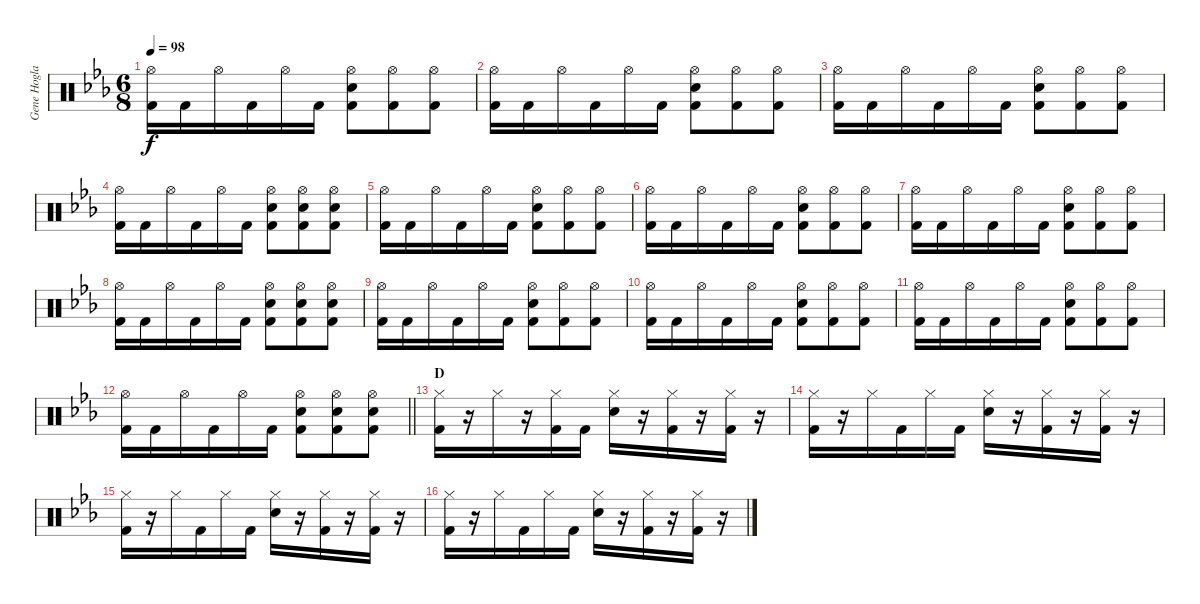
\track ("Gene Hogland" "Gene Hogla") {instrument percussion}
\staff {score}
\articulation defaults
\ts (6 8)
\tempo 98
\clef neutral
\ks eb
("Hi-Hat (open)" "Kick (hit) 2").16{dy f} "Kick (hit) 2".16 "Hi-Hat (open)".16 "Kick (hit) 2".16 "Hi-Hat (open)".16 "Kick (hit) 2".16 ("Hi-Hat (open)" "Electric Snare (hit)" "Kick (hit) 2").8 ("Hi-Hat (open)" "Kick (hit) 2").8 ("Hi-Hat (open)" "Kick (hit) 2").8 |
("Hi-Hat (open)" "Kick (hit) 2").16 "Kick (hit) 2".16 "Hi-Hat (open)".16 "Kick (hit) 2".16 "Hi-Hat (open)".16 "Kick (hit) 2".16 ("Hi-Hat (open)" "Electric Snare (hit)" "Kick (hit) 2").8 ("Hi-Hat (open)" "Kick (hit) 2").8 ("Hi-Hat (open)" "Kick (hit) 2").8 |
("Hi-Hat (open)" "Kick (hit) 2").16 "Kick (hit) 2".16 "Hi-Hat (open)".16 "Kick (hit) 2".16 "Hi-Hat (open)".16 "Kick (hit) 2".16 ("Hi-Hat (open)" "Electric Snare (hit)" "Kick (hit) 2").8 ("Hi-Hat (open)" "Kick (hit) 2").8 ("Hi-Hat (open)" "Kick (hit) 2").8 |
("Hi-Hat (open)" "Kick (hit) 2").16 "Kick (hit) 2".16 "Hi-Hat (open)".16 "Kick (hit) 2".16 "Hi-Hat (open)".16 "Kick (hit) 2".16 ("Hi-Hat (open)" "Electric Snare (hit)" "Kick (hit) 2").8 ("Hi-Hat (open)" "Electric Snare (hit)" "Kick (hit) 2").8 ("Hi-Hat (open)" "Electric Snare (hit)" "Kick (hit) 2").8 |
("Hi-Hat (open)" "Kick (hit) 2").16 "Kick (hit) 2".16 "Hi-Hat (open)".16 "Kick (hit) 2".16 "Hi-Hat (open)".16 "Kick (hit) 2".16 ("Hi-Hat (open)" "Electric Snare (hit)" "Kick (hit) 2").8 ("Hi-Hat (open)" "Kick (hit) 2").8 ("Hi-Hat (open)" "Kick (hit) 2").8 |
("Hi-Hat (open)" "Kick (hit) 2").16 "Kick (hit) 2".16 "Hi-Hat (open)".16 "Kick (hit) 2".16 "Hi-Hat (open)".16 "Kick (hit) 2".16 ("Hi-Hat (open)" "Electric Snare (hit)" "Kick (hit) 2").8 ("Hi-Hat (open)" "Kick (hit) 2").8 ("Hi-Hat (open)" "Kick (hit) 2").8 |
("Hi-Hat (open)" "Kick (hit) 2").16 "Kick (hit) 2".16 "Hi-Hat (open)".16 "Kick (hit) 2".16 "Hi-Hat (open)".16 "Kick (hit) 2".16 ("Hi-Hat (open)" "Electric Snare (hit)" "Kick (hit) 2").8 ("Hi-Hat (open)" "Kick (hit) 2").8 ("Hi-Hat (open)" "Kick (hit) 2").8 |
("Hi-Hat (open)" "Kick (hit) 2").16 "Kick (hit) 2".16 "Hi-Hat (open)".16 "Kick (hit) 2".16 "Hi-Hat (open)".16 "Kick (hit) 2".16 ("Hi-Hat (open)" "Electric Snare (hit)" "Kick (hit) 2").8 ("Hi-Hat (open)" "Electric Snare (hit)" "Kick (hit) 2").8 ("Hi-Hat (open)" "Electric Snare (hit)" "Kick (hit) 2").8 |
("Hi-Hat (open)" "Kick (hit) 2").16 "Kick (hit) 2".16 "Hi-Hat (open)".16 "Kick (hit) 2".16 "Hi-Hat (open)".16 "Kick (hit) 2".16 ("Hi-Hat (open)" "Electric Snare (hit)" "Kick (hit) 2").8 ("Hi-Hat (open)" "Kick (hit) 2").8 ("Hi-Hat (open)" "Kick (hit) 2").8 |
("Hi-Hat (open)" "Kick (hit) 2").16 "Kick (hit) 2".16 "Hi-Hat (open)".16 "Kick (hit) 2".16 "Hi-Hat (open)".16 "Kick (hit) 2".16 ("Hi-Hat (open)" "Electric Snare (hit)" "Kick (hit) 2").8 ("Hi-Hat (open)" "Kick (hit) 2").8 ("Hi-Hat (open)" "Kick (hit) 2").8 |
("Hi-Hat (open)" "Kick (hit) 2").16 "Kick (hit) 2".16 "Hi-Hat (open)".16 "Kick (hit) 2".16 "Hi-Hat (open)".16 "Kick (hit) 2".16 ("Hi-Hat (open)" "Electric Snare (hit)" "Kick (hit) 2").8 ("Hi-Hat (open)" "Kick (hit) 2").8 ("Hi-Hat (open)" "Kick (hit) 2").8 |
\barLineRight lightlight
("Hi-Hat (open)" "Kick (hit) 2").16 "Kick (hit) 2".16 "Hi-Hat (open)".16 "Kick (hit) 2".16 "Hi-Hat (open)".16 "Kick (hit) 2".16 ("Hi-Hat (open)" "Electric Snare (hit)" "Kick (hit) 2").8 ("Hi-Hat (open)" "Electric Snare (hit)" "Kick (hit) 2").8 ("Hi-Hat (open)" "Electric Snare (hit)" "Kick (hit) 2").8 |
\section ("" "D")
("Hi-Hat (closed)" "Kick (hit) 2").16 r.16 "Hi-Hat (closed)".16 r.16 ("Hi-Hat (closed)" "Kick (hit) 2").16 "Kick (hit) 2".16 ("Hi-Hat (closed)" "Electric Snare (hit)").16 r.16 ("Hi-Hat (closed)" "Kick (hit) 2").16 r.16 ("Hi-Hat (closed)" "Kick (hit) 2").16 r.16 |
("Hi-Hat (closed)" "Kick (hit) 2").16 r.16 "Hi-Hat (closed)".16 "Kick (hit) 2".16 "Hi-Hat (closed)".16 "Kick (hit) 2".16 ("Hi-Hat (closed)" "Electric Snare (hit)").16 r.16 ("Hi-Hat (closed)" "Kick (hit) 2").16 r.16 ("Hi-Hat (closed)" "Kick (hit) 2").16 r.16 |
("Hi-Hat (closed)" "Kick (hit) 2").16 r.16 "Hi-Hat (closed)".16 "Kick (hit) 2".16 "Hi-Hat (closed)".16 "Kick (hit) 2".16 ("Hi-Hat (closed)" "Electric Snare (hit)").16 r.16 ("Hi-Hat (closed)" "Kick (hit) 2").16 r.16 ("Hi-Hat (closed)" "Kick (hit) 2").16 r.16 |
("Hi-Hat (closed)" "Kick (hit) 2").16 r.16 "Hi-Hat (closed)".16 "Kick (hit) 2".16 "Hi-Hat (closed)".16 "Kick (hit) 2".16 ("Hi-Hat (closed)" "Electric Snare (hit)").16 r.16 ("Hi-Hat (closed)" "Kick (hit) 2").16 r.16 ("Hi-Hat (closed)" "Kick (hit) 2").16 r.16
